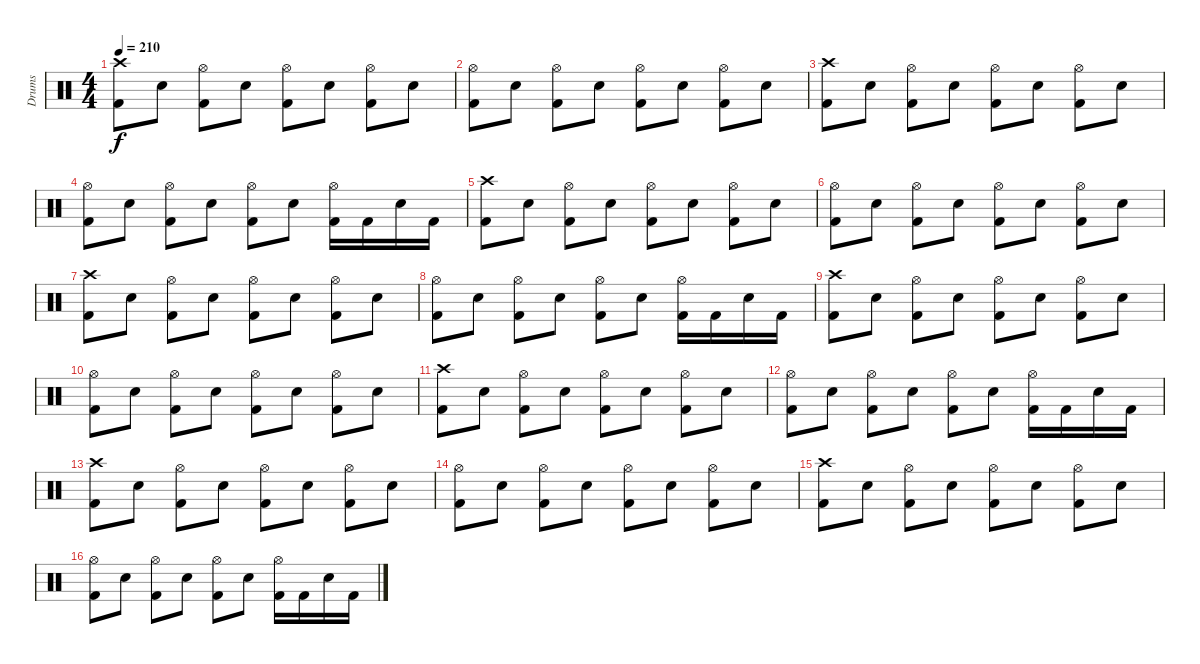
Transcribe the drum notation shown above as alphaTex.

\track ("Drums" "Drums") {instrument percussion}
\staff {score}
\articulation defaults
\ts (4 4)
\tempo 210
\clef neutral
\ks c
("Crash high (hit)" "Kick (hit) 2").8{dy f} "Snare (hit) 2".8 ("Hi-Hat (open)" "Kick (hit) 2").8 "Snare (hit) 2".8 ("Hi-Hat (open)" "Kick (hit) 2").8 "Snare (hit) 2".8 ("Hi-Hat (open)" "Kick (hit) 2").8 "Snare (hit) 2".8 |
("Hi-Hat (open)" "Kick (hit) 2").8 "Snare (hit) 2".8 ("Hi-Hat (open)" "Kick (hit) 2").8 "Snare (hit) 2".8 ("Hi-Hat (open)" "Kick (hit) 2").8 "Snare (hit) 2".8 ("Hi-Hat (open)" "Kick (hit) 2").8 "Snare (hit) 2".8 |
("Crash high (hit)" "Kick (hit) 2").8 "Snare (hit) 2".8 ("Hi-Hat (open)" "Kick (hit) 2").8 "Snare (hit) 2".8 ("Hi-Hat (open)" "Kick (hit) 2").8 "Snare (hit) 2".8 ("Hi-Hat (open)" "Kick (hit) 2").8 "Snare (hit) 2".8 |
("Hi-Hat (open)" "Kick (hit) 2").8 "Snare (hit) 2".8 ("Hi-Hat (open)" "Kick (hit) 2").8 "Snare (hit) 2".8 ("Hi-Hat (open)" "Kick (hit) 2").8 "Snare (hit) 2".8 ("Hi-Hat (open)" "Kick (hit) 2").16 "Kick (hit) 2".16 "Snare (hit) 2".16 "Kick (hit) 2".16 |
("Crash high (hit)" "Kick (hit) 2").8 "Snare (hit) 2".8 ("Hi-Hat (open)" "Kick (hit) 2").8 "Snare (hit) 2".8 ("Hi-Hat (open)" "Kick (hit) 2").8 "Snare (hit) 2".8 ("Hi-Hat (open)" "Kick (hit) 2").8 "Snare (hit) 2".8 |
("Hi-Hat (open)" "Kick (hit) 2").8 "Snare (hit) 2".8 ("Hi-Hat (open)" "Kick (hit) 2").8 "Snare (hit) 2".8 ("Hi-Hat (open)" "Kick (hit) 2").8 "Snare (hit) 2".8 ("Hi-Hat (open)" "Kick (hit) 2").8 "Snare (hit) 2".8 |
("Crash high (hit)" "Kick (hit) 2").8 "Snare (hit) 2".8 ("Hi-Hat (open)" "Kick (hit) 2").8 "Snare (hit) 2".8 ("Hi-Hat (open)" "Kick (hit) 2").8 "Snare (hit) 2".8 ("Hi-Hat (open)" "Kick (hit) 2").8 "Snare (hit) 2".8 |
("Hi-Hat (open)" "Kick (hit) 2").8 "Snare (hit) 2".8 ("Hi-Hat (open)" "Kick (hit) 2").8 "Snare (hit) 2".8 ("Hi-Hat (open)" "Kick (hit) 2").8 "Snare (hit) 2".8 ("Hi-Hat (open)" "Kick (hit) 2").16 "Kick (hit) 2".16 "Snare (hit) 2".16 "Kick (hit) 2".16 |
("Crash high (hit)" "Kick (hit) 2").8 "Snare (hit) 2".8 ("Hi-Hat (open)" "Kick (hit) 2").8 "Snare (hit) 2".8 ("Hi-Hat (open)" "Kick (hit) 2").8 "Snare (hit) 2".8 ("Hi-Hat (open)" "Kick (hit) 2").8 "Snare (hit) 2".8 |
("Hi-Hat (open)" "Kick (hit) 2").8 "Snare (hit) 2".8 ("Hi-Hat (open)" "Kick (hit) 2").8 "Snare (hit) 2".8 ("Hi-Hat (open)" "Kick (hit) 2").8 "Snare (hit) 2".8 ("Hi-Hat (open)" "Kick (hit) 2").8 "Snare (hit) 2".8 |
("Crash high (hit)" "Kick (hit) 2").8 "Snare (hit) 2".8 ("Hi-Hat (open)" "Kick (hit) 2").8 "Snare (hit) 2".8 ("Hi-Hat (open)" "Kick (hit) 2").8 "Snare (hit) 2".8 ("Hi-Hat (open)" "Kick (hit) 2").8 "Snare (hit) 2".8 |
("Hi-Hat (open)" "Kick (hit) 2").8 "Snare (hit) 2".8 ("Hi-Hat (open)" "Kick (hit) 2").8 "Snare (hit) 2".8 ("Hi-Hat (open)" "Kick (hit) 2").8 "Snare (hit) 2".8 ("Hi-Hat (open)" "Kick (hit) 2").16 "Kick (hit) 2".16 "Snare (hit) 2".16 "Kick (hit) 2".16 |
("Crash high (hit)" "Kick (hit) 2").8 "Snare (hit) 2".8 ("Hi-Hat (open)" "Kick (hit) 2").8 "Snare (hit) 2".8 ("Hi-Hat (open)" "Kick (hit) 2").8 "Snare (hit) 2".8 ("Hi-Hat (open)" "Kick (hit) 2").8 "Snare (hit) 2".8 |
("Hi-Hat (open)" "Kick (hit) 2").8 "Snare (hit) 2".8 ("Hi-Hat (open)" "Kick (hit) 2").8 "Snare (hit) 2".8 ("Hi-Hat (open)" "Kick (hit) 2").8 "Snare (hit) 2".8 ("Hi-Hat (open)" "Kick (hit) 2").8 "Snare (hit) 2".8 |
("Crash high (hit)" "Kick (hit) 2").8 "Snare (hit) 2".8 ("Hi-Hat (open)" "Kick (hit) 2").8 "Snare (hit) 2".8 ("Hi-Hat (open)" "Kick (hit) 2").8 "Snare (hit) 2".8 ("Hi-Hat (open)" "Kick (hit) 2").8 "Snare (hit) 2".8 |
("Hi-Hat (open)" "Kick (hit) 2").8 "Snare (hit) 2".8 ("Hi-Hat (open)" "Kick (hit) 2").8 "Snare (hit) 2".8 ("Hi-Hat (open)" "Kick (hit) 2").8 "Snare (hit) 2".8 ("Hi-Hat (open)" "Kick (hit) 2").16 "Kick (hit) 2".16 "Snare (hit) 2".16 "Kick (hit) 2".16
